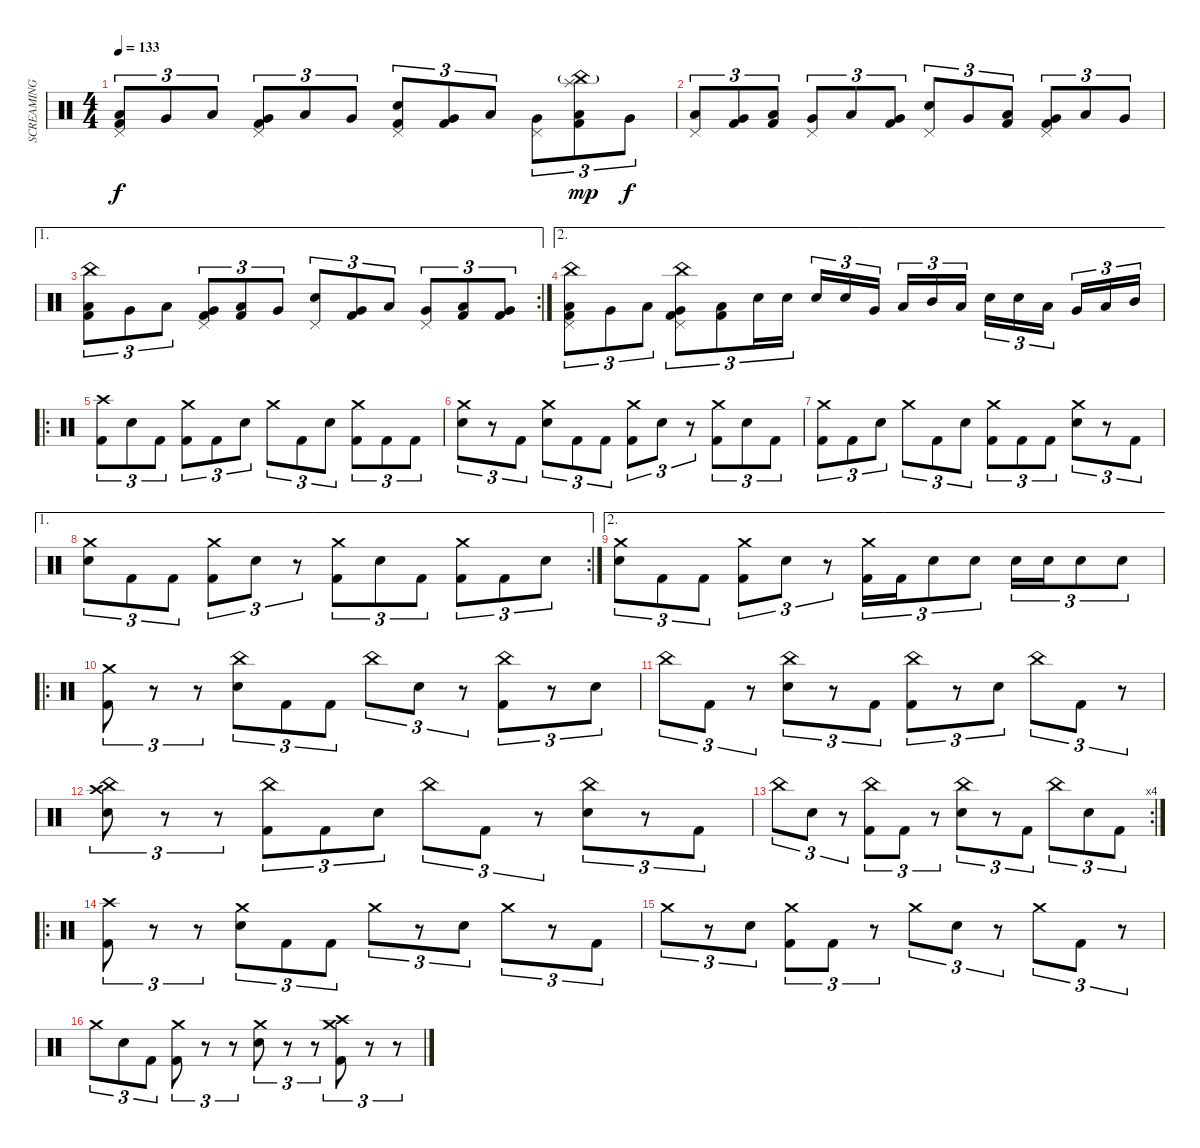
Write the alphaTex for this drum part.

\track ("SCREAMING TOASTER OVEN" "SCREAMING ") {instrument percussion}
\staff {score}
\articulation defaults
\ts (4 4)
\tempo 133
\clef neutral
\ks c
("Pedal Hi-Hat (hit)" "Low Floor Tom (hit)" "Kick (hit) 2").8{tu (3 2) dy f} "Very Low Tom (hit)".8{tu (3 2)} "Low Floor Tom (hit)".8{tu (3 2)} ("Pedal Hi-Hat (hit)" "Very Low Tom (hit)" "Kick (hit) 2").8{tu (3 2)} "Low Floor Tom (hit)".8{tu (3 2)} "Very Low Tom (hit)".8{tu (3 2)} ("Pedal Hi-Hat (hit)" "Electric Snare (hit)" "Kick (hit) 2").8{tu (3 2)} ("Very Low Tom (hit)" "Kick (hit) 2").8{tu (3 2)} "Low Floor Tom (hit)".8{tu (3 2)} ("Pedal Hi-Hat (hit)" "Very Low Tom (hit)").8{tu (3 2)} ("China (hit)"{g} "Splash (hit)" "Low Floor Tom (hit)" "Kick (hit) 2").8{tu (3 2) dy mp} "Very Low Tom (hit)".8{tu (3 2) dy f} |
("Pedal Hi-Hat (hit)" "Low Floor Tom (hit)").8{tu (3 2)} ("Very Low Tom (hit)" "Kick (hit) 2").8{tu (3 2)} ("Low Floor Tom (hit)" "Kick (hit) 2").8{tu (3 2)} ("Pedal Hi-Hat (hit)" "Very Low Tom (hit)").8{tu (3 2)} "Low Floor Tom (hit)".8{tu (3 2)} ("Very Low Tom (hit)" "Kick (hit) 2").8{tu (3 2)} ("Pedal Hi-Hat (hit)" "Electric Snare (hit)").8{tu (3 2)} "Very Low Tom (hit)".8{tu (3 2)} ("Low Floor Tom (hit)" "Kick (hit) 2").8{tu (3 2)} ("Pedal Hi-Hat (hit)" "Very Low Tom (hit)" "Kick (hit) 2").8{tu (3 2)} "Low Floor Tom (hit)".8{tu (3 2)} "Very Low Tom (hit)".8{tu (3 2)} |
\ae 1
\rc 2
("China (hit)" "Low Floor Tom (hit)" "Kick (hit) 2").8{tu (3 2)} "Very Low Tom (hit)".8{tu (3 2)} "Low Floor Tom (hit)".8{tu (3 2)} ("Pedal Hi-Hat (hit)" "Very Low Tom (hit)" "Kick (hit) 2").8{tu (3 2)} ("Low Floor Tom (hit)" "Kick (hit) 2").8{tu (3 2)} "Very Low Tom (hit)".8{tu (3 2)} ("Pedal Hi-Hat (hit)" "Electric Snare (hit)").8{tu (3 2)} ("Very Low Tom (hit)" "Kick (hit) 2").8{tu (3 2)} "Low Floor Tom (hit)".8{tu (3 2)} ("Pedal Hi-Hat (hit)" "Very Low Tom (hit)").8{tu (3 2)} ("Low Floor Tom (hit)" "Kick (hit) 2").8{tu (3 2)} ("Very Low Tom (hit)" "Kick (hit) 2").8{tu (3 2)} |
\ae 2
("China (hit)" "Pedal Hi-Hat (hit)" "Low Floor Tom (hit)" "Kick (hit) 2").8{tu (3 2)} "Very Low Tom (hit)".8{tu (3 2)} "Low Floor Tom (hit)".8{tu (3 2)} ("China (hit)" "Pedal Hi-Hat (hit)" "Very Low Tom (hit)" "Kick (hit) 2").8{tu (3 2)} ("Low Floor Tom (hit)" "Kick (hit) 2").8{tu (3 2)} "Electric Snare (hit)".16{tu (3 2)} "Electric Snare (hit)".16{tu (3 2)} "Electric Snare (hit)".16{tu (3 2)} "Electric Snare (hit)".16{tu (3 2)} "Very Low Tom (hit)".16{tu (3 2) beam splitsecondary} "Low Tom (hit)".16{tu (3 2)} "Mid Tom (hit)".16{tu (3 2)} "Low Floor Tom (hit)".16{tu (3 2)} "Electric Snare (hit)".16{tu (3 2)} "Electric Snare (hit)".16{tu (3 2)} "Low Tom (hit)".16{tu (3 2) beam splitsecondary} "Very Low Tom (hit)".16{tu (3 2)} "Low Tom (hit)".16{tu (3 2)} "Mid Tom (hit)".16{tu (3 2)} |
\ro
("Crash high (hit)" "Kick (hit) 2").8{tu (3 2)} "Electric Snare (hit)".8{tu (3 2)} "Kick (hit) 2".8{tu (3 2)} ("Crash medium (hit)" "Kick (hit) 2").8{tu (3 2)} "Kick (hit) 2".8{tu (3 2)} "Electric Snare (hit)".8{tu (3 2)} "Crash medium (hit)".8{tu (3 2)} "Kick (hit) 2".8{tu (3 2)} "Electric Snare (hit)".8{tu (3 2)} ("Crash medium (hit)" "Kick (hit) 2").8{tu (3 2)} "Kick (hit) 2".8{tu (3 2)} "Kick (hit) 2".8{tu (3 2)} |
("Crash medium (hit)" "Electric Snare (hit)").8{tu (3 2)} r.8{tu (3 2)} "Kick (hit) 2".8{tu (3 2)} ("Crash medium (hit)" "Electric Snare (hit)").8{tu (3 2)} "Kick (hit) 2".8{tu (3 2)} "Kick (hit) 2".8{tu (3 2)} ("Crash medium (hit)" "Kick (hit) 2").8{tu (3 2)} "Electric Snare (hit)".8{tu (3 2)} r.8{tu (3 2)} ("Crash medium (hit)" "Kick (hit) 2").8{tu (3 2)} "Electric Snare (hit)".8{tu (3 2)} "Kick (hit) 2".8{tu (3 2)} |
("Crash medium (hit)" "Kick (hit) 2").8{tu (3 2)} "Kick (hit) 2".8{tu (3 2)} "Electric Snare (hit)".8{tu (3 2)} "Crash medium (hit)".8{tu (3 2)} "Kick (hit) 2".8{tu (3 2)} "Electric Snare (hit)".8{tu (3 2)} ("Crash medium (hit)" "Kick (hit) 2").8{tu (3 2)} "Kick (hit) 2".8{tu (3 2)} "Kick (hit) 2".8{tu (3 2)} ("Crash medium (hit)" "Electric Snare (hit)").8{tu (3 2)} r.8{tu (3 2)} "Kick (hit) 2".8{tu (3 2)} |
\ae 1
\rc 2
("Crash medium (hit)" "Electric Snare (hit)").8{tu (3 2)} "Kick (hit) 2".8{tu (3 2)} "Kick (hit) 2".8{tu (3 2)} ("Crash medium (hit)" "Kick (hit) 2").8{tu (3 2)} "Electric Snare (hit)".8{tu (3 2)} r.8{tu (3 2)} ("Crash medium (hit)" "Kick (hit) 2").8{tu (3 2)} "Electric Snare (hit)".8{tu (3 2)} "Kick (hit) 2".8{tu (3 2)} ("Crash medium (hit)" "Kick (hit) 2").8{tu (3 2)} "Kick (hit) 2".8{tu (3 2)} "Electric Snare (hit)".8{tu (3 2)} |
\ae 2
("Crash medium (hit)" "Electric Snare (hit)").8{tu (3 2)} "Kick (hit) 2".8{tu (3 2)} "Kick (hit) 2".8{tu (3 2)} ("Crash medium (hit)" "Kick (hit) 2").8{tu (3 2)} "Electric Snare (hit)".8{tu (3 2)} r.8{tu (3 2)} ("Crash medium (hit)" "Kick (hit) 2").16{tu (3 2)} "Kick (hit) 2".16{tu (3 2)} "Electric Snare (hit)".8{tu (3 2)} "Electric Snare (hit)".8{tu (3 2)} "Electric Snare (hit)".16{tu (3 2)} "Electric Snare (hit)".16{tu (3 2)} "Electric Snare (hit)".8{tu (3 2)} "Electric Snare (hit)".8{tu (3 2)} |
\ro
("Crash medium (hit)" "Kick (hit) 2").8{tu (3 2)} r.8{tu (3 2)} r.8{tu (3 2)} ("China (hit)" "Electric Snare (hit)").8{tu (3 2)} "Kick (hit) 2".8{tu (3 2)} "Kick (hit) 2".8{tu (3 2)} "China (hit)".8{tu (3 2)} "Electric Snare (hit)".8{tu (3 2)} r.8{tu (3 2)} ("China (hit)" "Kick (hit) 2").8{tu (3 2)} r.8{tu (3 2)} "Electric Snare (hit)".8{tu (3 2)} |
"China (hit)".8{tu (3 2)} "Kick (hit) 2".8{tu (3 2)} r.8{tu (3 2)} ("China (hit)" "Electric Snare (hit)").8{tu (3 2)} r.8{tu (3 2)} "Kick (hit) 2".8{tu (3 2)} ("China (hit)" "Kick (hit) 2").8{tu (3 2)} r.8{tu (3 2)} "Electric Snare (hit)".8{tu (3 2)} "China (hit)".8{tu (3 2)} "Kick (hit) 2".8{tu (3 2)} r.8{tu (3 2)} |
("Crash high (hit)" "China (hit)" "Electric Snare (hit)").8{tu (3 2)} r.8{tu (3 2)} r.8{tu (3 2)} ("China (hit)" "Kick (hit) 2").8{tu (3 2)} "Kick (hit) 2".8{tu (3 2)} "Electric Snare (hit)".8{tu (3 2)} "China (hit)".8{tu (3 2)} "Kick (hit) 2".8{tu (3 2)} r.8{tu (3 2)} ("China (hit)" "Electric Snare (hit)").8{tu (3 2)} r.8{tu (3 2)} "Kick (hit) 2".8{tu (3 2)} |
\rc 4 "China (hit)".8{tu (3 2)} "Electric Snare (hit)".8{tu (3 2)}
r.8{tu (3 2)} ("China (hit)" "Kick (hit) 2").8{tu (3 2)} "Kick (hit) 2".8{tu (3 2)} r.8{tu (3 2)} ("China (hit)" "Electric Snare (hit)").8{tu (3 2)} r.8{tu (3 2)} "Kick (hit) 2".8{tu (3 2)} "China (hit)".8{tu (3 2)} "Electric Snare (hit)".8{tu (3 2)} "Kick (hit) 2".8{tu (3 2)} |
\ro
("Crash high (hit)" "Kick (hit) 2").8{tu (3 2)} r.8{tu (3 2)} r.8{tu (3 2)} ("Crash medium (hit)" "Electric Snare (hit)").8{tu (3 2)} "Kick (hit) 2".8{tu (3 2)} "Kick (hit) 2".8{tu (3 2)} "Crash medium (hit)".8{tu (3 2)} r.8{tu (3 2)} "Electric Snare (hit)".8{tu (3 2)} "Crash medium (hit)".8{tu (3 2)} r.8{tu (3 2)} "Kick (hit) 2".8{tu (3 2)} |
"Crash medium (hit)".8{tu (3 2)} r.8{tu (3 2)} "Electric Snare (hit)".8{tu (3 2)} ("Crash medium (hit)" "Kick (hit) 2").8{tu (3 2)} "Kick (hit) 2".8{tu (3 2)} r.8{tu (3 2)} "Crash medium (hit)".8{tu (3 2)} "Electric Snare (hit)".8{tu (3 2)} r.8{tu (3 2)} "Crash medium (hit)".8{tu (3 2)} "Kick (hit) 2".8{tu (3 2)} r.8{tu (3 2)} |
"Crash medium (hit)".8{tu (3 2)} "Electric Snare (hit)".8{tu (3 2)} "Kick (hit) 2".8{tu (3 2)} ("Crash medium (hit)" "Kick (hit) 2").8{tu (3 2)} r.8{tu (3 2)} r.8{tu (3 2)} ("Crash medium (hit)" "Electric Snare (hit)").8{tu (3 2)} r.8{tu (3 2)} r.8{tu (3 2)} ("Crash medium (hit)" "Crash high (hit)" "Kick (hit) 2").8{tu (3 2)} r.8{tu (3 2)} r.8{tu (3 2)}
